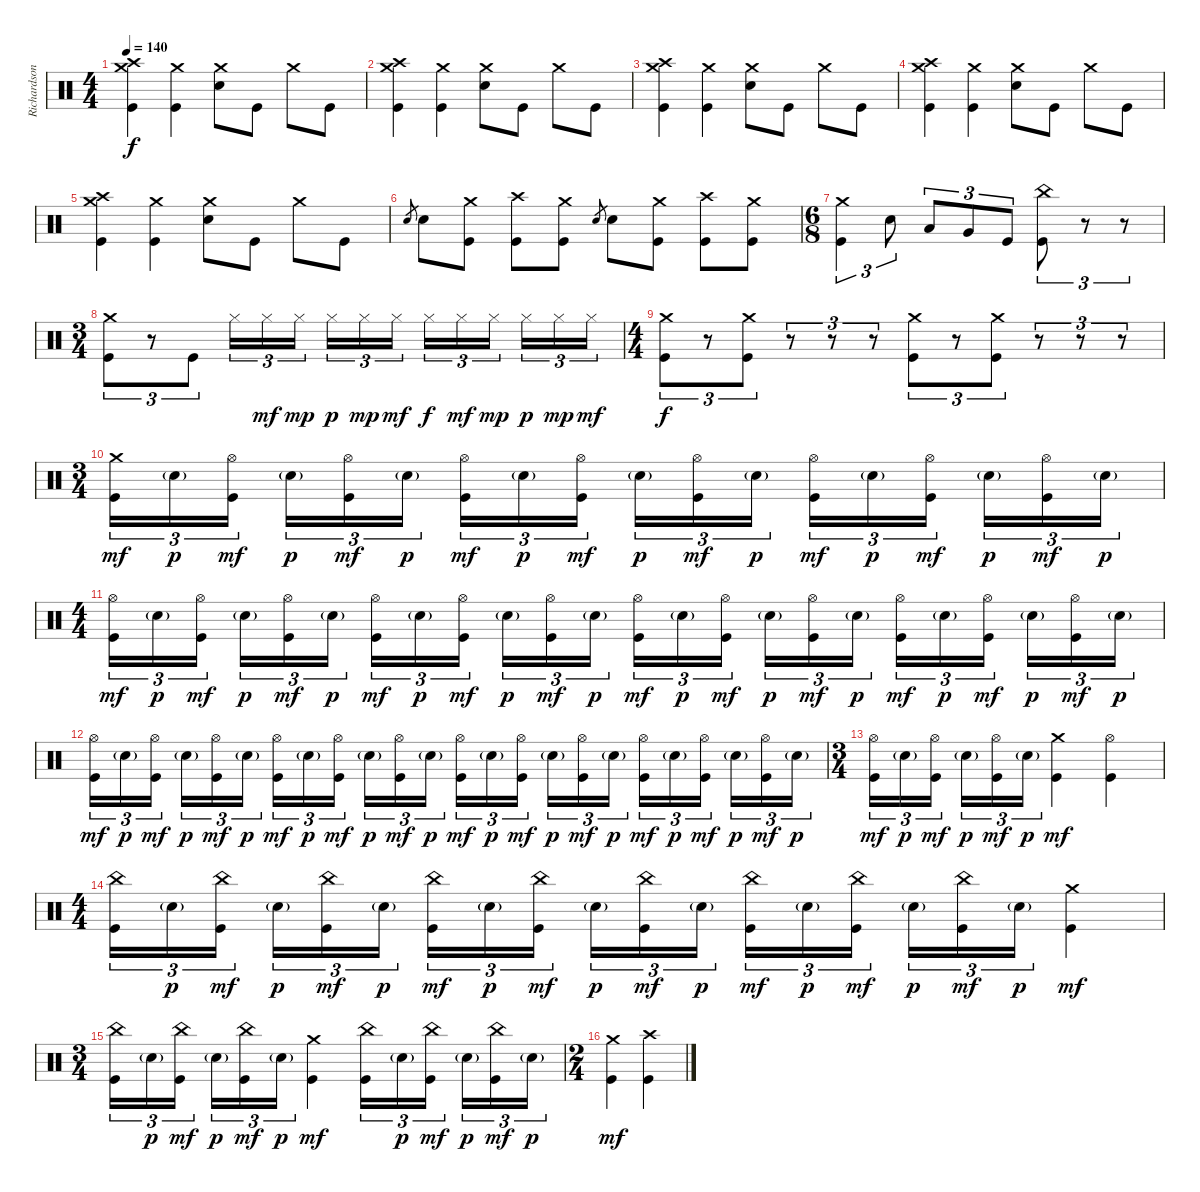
\track ("Richardson" "Richardson") {instrument percussion}
\staff {score}
\articulation defaults
\ts (4 4)
\tempo 140
\clef neutral
\ks c
("Crash medium (hit)" "Crash high (hit)" "Kick (hit)").4{dy f} ("Crash medium (hit)" "Kick (hit)").4 ("Crash medium (hit)" "Electric Snare (hit)").8 "Kick (hit)".8 "Crash medium (hit)".8 "Kick (hit)".8 |
("Crash medium (hit)" "Crash high (hit)" "Kick (hit)").4 ("Crash medium (hit)" "Kick (hit)").4 ("Crash medium (hit)" "Electric Snare (hit)").8 "Kick (hit)".8 "Crash medium (hit)".8 "Kick (hit)".8 |
("Crash medium (hit)" "Crash high (hit)" "Kick (hit)").4 ("Crash medium (hit)" "Kick (hit)").4 ("Crash medium (hit)" "Electric Snare (hit)").8 "Kick (hit)".8 "Crash medium (hit)".8 "Kick (hit)".8 |
("Crash medium (hit)" "Crash high (hit)" "Kick (hit)").4 ("Crash medium (hit)" "Kick (hit)").4 ("Crash medium (hit)" "Electric Snare (hit)").8 "Kick (hit)".8 "Crash medium (hit)".8 "Kick (hit)".8 |
("Crash medium (hit)" "Crash high (hit)" "Kick (hit)").4 ("Crash medium (hit)" "Kick (hit)").4 ("Crash medium (hit)" "Electric Snare (hit)").8 "Kick (hit)".8 "Crash medium (hit)".8 "Kick (hit)".8 |
"Electric Snare (hit)".8{gr} "Electric Snare (hit)".8 ("Crash medium (hit)" "Kick (hit)").8 ("Crash high (hit)" "Kick (hit)").8 ("Crash medium (hit)" "Kick (hit)").8 "Electric Snare (hit)".8{gr} "Electric Snare (hit)".8 ("Crash medium (hit)" "Kick (hit)").8 ("Crash high (hit)" "Kick (hit)").8 ("Crash medium (hit)" "Kick (hit)").8 |
\ts (6 8)
("Crash medium (hit)" "Kick (hit)").4{tu (3 2)} "Electric Snare (hit)".8{tu (3 2)} "Low Tom (hit)".8{tu (3 2)} "Very Low Tom (hit)".8{tu (3 2)} "Kick (hit)".8{tu (3 2)} ("China (hit)" "Kick (hit)").8{tu (3 2)} r.8{tu (3 2)} r.8{tu (3 2)} |
\ts (3 4)
("Crash medium (hit)" "Kick (hit)").8{tu (3 2)} r.8{tu (3 2)} "Kick (hit)".8{tu (3 2)} "Hi-Hat (closed)".16{tu (3 2)} "Hi-Hat (closed)".16{tu (3 2) dy mf} "Hi-Hat (closed)".16{tu (3 2) dy mp beam splitsecondary} "Hi-Hat (closed)".16{tu (3 2) dy p} "Hi-Hat (closed)".16{tu (3 2) dy mp} "Hi-Hat (closed)".16{tu (3 2) dy mf} "Hi-Hat (closed)".16{tu (3 2) dy f} "Hi-Hat (closed)".16{tu (3 2) dy mf} "Hi-Hat (closed)".16{tu (3 2) dy mp beam splitsecondary} "Hi-Hat (closed)".16{tu (3 2) dy p} "Hi-Hat (closed)".16{tu (3 2) dy mp} "Hi-Hat (closed)".16{tu (3 2) dy mf} |
\ts (4 4)
("Crash medium (hit)" "Kick (hit)").8{tu (3 2) dy f} r.8{tu (3 2)} ("Crash medium (hit)" "Kick (hit)").8{tu (3 2)} r.8{tu (3 2)} r.8{tu (3 2)} r.8{tu (3 2)} ("Crash medium (hit)" "Kick (hit)").8{tu (3 2)} r.8{tu (3 2)} ("Crash medium (hit)" "Kick (hit)").8{tu (3 2)} r.8{tu (3 2)} r.8{tu (3 2)} r.8{tu (3 2)} |
\ts (3 4)
("Crash medium (hit)" "Kick (hit)").16{tu (3 2) dy mf} "Electric Snare (hit)"{g}.16{tu (3 2) dy p} ("Hi-Hat (open)" "Kick (hit)").16{tu (3 2) dy mf beam splitsecondary} "Electric Snare (hit)"{g}.16{tu (3 2) dy p} ("Hi-Hat (open)" "Kick (hit)").16{tu (3 2) dy mf} "Electric Snare (hit)"{g}.16{tu (3 2) dy p} ("Hi-Hat (open)" "Kick (hit)").16{tu (3 2) dy mf} "Electric Snare (hit)"{g}.16{tu (3 2) dy p} ("Hi-Hat (open)" "Kick (hit)").16{tu (3 2) dy mf beam splitsecondary} "Electric Snare (hit)"{g}.16{tu (3 2) dy p} ("Hi-Hat (open)" "Kick (hit)").16{tu (3 2) dy mf} "Electric Snare (hit)"{g}.16{tu (3 2) dy p} ("Hi-Hat (open)" "Kick (hit)").16{tu (3 2) dy mf} "Electric Snare (hit)"{g}.16{tu (3 2) dy p} ("Hi-Hat (open)" "Kick (hit)").16{tu (3 2) dy mf beam splitsecondary} "Electric Snare (hit)"{g}.16{tu (3 2) dy p} ("Hi-Hat (open)" "Kick (hit)").16{tu (3 2) dy mf} "Electric Snare (hit)"{g}.16{tu (3 2) dy p} |
\ts (4 4)
("Hi-Hat (open)" "Kick (hit)").16{tu (3 2) dy mf} "Electric Snare (hit)"{g}.16{tu (3 2) dy p} ("Hi-Hat (open)" "Kick (hit)").16{tu (3 2) dy mf beam splitsecondary} "Electric Snare (hit)"{g}.16{tu (3 2) dy p} ("Hi-Hat (open)" "Kick (hit)").16{tu (3 2) dy mf} "Electric Snare (hit)"{g}.16{tu (3 2) dy p} ("Hi-Hat (open)" "Kick (hit)").16{tu (3 2) dy mf} "Electric Snare (hit)"{g}.16{tu (3 2) dy p} ("Hi-Hat (open)" "Kick (hit)").16{tu (3 2) dy mf beam splitsecondary} "Electric Snare (hit)"{g}.16{tu (3 2) dy p} ("Hi-Hat (open)" "Kick (hit)").16{tu (3 2) dy mf} "Electric Snare (hit)"{g}.16{tu (3 2) dy p} ("Hi-Hat (open)" "Kick (hit)").16{tu (3 2) dy mf} "Electric Snare (hit)"{g}.16{tu (3 2) dy p} ("Hi-Hat (open)" "Kick (hit)").16{tu (3 2) dy mf beam splitsecondary} "Electric Snare (hit)"{g}.16{tu (3 2) dy p} ("Hi-Hat (open)" "Kick (hit)").16{tu (3 2) dy mf} "Electric Snare (hit)"{g}.16{tu (3 2) dy p} ("Hi-Hat (open)" "Kick (hit)").16{tu (3 2) dy mf} "Electric Snare (hit)"{g}.16{tu (3 2) dy p} ("Hi-Hat (open)" "Kick (hit)").16{tu (3 2) dy mf beam splitsecondary} "Electric Snare (hit)"{g}.16{tu (3 2) dy p} ("Hi-Hat (open)" "Kick (hit)").16{tu (3 2) dy mf} "Electric Snare (hit)"{g}.16{tu (3 2) dy p} |
("Hi-Hat (open)" "Kick (hit)").16{tu (3 2) dy mf} "Electric Snare (hit)"{g}.16{tu (3 2) dy p} ("Hi-Hat (open)" "Kick (hit)").16{tu (3 2) dy mf beam splitsecondary} "Electric Snare (hit)"{g}.16{tu (3 2) dy p} ("Hi-Hat (open)" "Kick (hit)").16{tu (3 2) dy mf} "Electric Snare (hit)"{g}.16{tu (3 2) dy p} ("Hi-Hat (open)" "Kick (hit)").16{tu (3 2) dy mf} "Electric Snare (hit)"{g}.16{tu (3 2) dy p} ("Hi-Hat (open)" "Kick (hit)").16{tu (3 2) dy mf beam splitsecondary} "Electric Snare (hit)"{g}.16{tu (3 2) dy p} ("Hi-Hat (open)" "Kick (hit)").16{tu (3 2) dy mf} "Electric Snare (hit)"{g}.16{tu (3 2) dy p} ("Hi-Hat (open)" "Kick (hit)").16{tu (3 2) dy mf} "Electric Snare (hit)"{g}.16{tu (3 2) dy p} ("Hi-Hat (open)" "Kick (hit)").16{tu (3 2) dy mf beam splitsecondary} "Electric Snare (hit)"{g}.16{tu (3 2) dy p} ("Hi-Hat (open)" "Kick (hit)").16{tu (3 2) dy mf} "Electric Snare (hit)"{g}.16{tu (3 2) dy p} ("Hi-Hat (open)" "Kick (hit)").16{tu (3 2) dy mf} "Electric Snare (hit)"{g}.16{tu (3 2) dy p} ("Hi-Hat (open)" "Kick (hit)").16{tu (3 2) dy mf beam splitsecondary} "Electric Snare (hit)"{g}.16{tu (3 2) dy p} ("Hi-Hat (open)" "Kick (hit)").16{tu (3 2) dy mf} "Electric Snare (hit)"{g}.16{tu (3 2) dy p} |
\ts (3 4)
("Hi-Hat (open)" "Kick (hit)").16{tu (3 2) dy mf} "Electric Snare (hit)"{g}.16{tu (3 2) dy p} ("Hi-Hat (open)" "Kick (hit)").16{tu (3 2) dy mf beam splitsecondary} "Electric Snare (hit)"{g}.16{tu (3 2) dy p} ("Hi-Hat (open)" "Kick (hit)").16{tu (3 2) dy mf} "Electric Snare (hit)"{g}.16{tu (3 2) dy p} ("Crash medium (hit)" "Kick (hit)").4{dy mf} ("Hi-Hat (open)" "Kick (hit)").4 |
\ts (4 4)
("China (hit)" "Kick (hit)").16{tu (3 2)} "Electric Snare (hit)"{g}.16{tu (3 2) dy p} ("China (hit)" "Kick (hit)").16{tu (3 2) dy mf beam splitsecondary} "Electric Snare (hit)"{g}.16{tu (3 2) dy p} ("China (hit)" "Kick (hit)").16{tu (3 2) dy mf} "Electric Snare (hit)"{g}.16{tu (3 2) dy p} ("China (hit)" "Kick (hit)").16{tu (3 2) dy mf} "Electric Snare (hit)"{g}.16{tu (3 2) dy p} ("China (hit)" "Kick (hit)").16{tu (3 2) dy mf beam splitsecondary} "Electric Snare (hit)"{g}.16{tu (3 2) dy p} ("China (hit)" "Kick (hit)").16{tu (3 2) dy mf} "Electric Snare (hit)"{g}.16{tu (3 2) dy p} ("China (hit)" "Kick (hit)").16{tu (3 2) dy mf} "Electric Snare (hit)"{g}.16{tu (3 2) dy p} ("China (hit)" "Kick (hit)").16{tu (3 2) dy mf beam splitsecondary} "Electric Snare (hit)"{g}.16{tu (3 2) dy p} ("China (hit)" "Kick (hit)").16{tu (3 2) dy mf} "Electric Snare (hit)"{g}.16{tu (3 2) dy p} ("Crash medium (hit)" "Kick (hit)").4{dy mf} |
\ts (3 4)
("China (hit)" "Kick (hit)").16{tu (3 2)} "Electric Snare (hit)"{g}.16{tu (3 2) dy p} ("China (hit)" "Kick (hit)").16{tu (3 2) dy mf beam splitsecondary} "Electric Snare (hit)"{g}.16{tu (3 2) dy p} ("China (hit)" "Kick (hit)").16{tu (3 2) dy mf} "Electric Snare (hit)"{g}.16{tu (3 2) dy p} ("Crash medium (hit)" "Kick (hit)").4{dy mf} ("China (hit)" "Kick (hit)").16{tu (3 2)} "Electric Snare (hit)"{g}.16{tu (3 2) dy p} ("China (hit)" "Kick (hit)").16{tu (3 2) dy mf beam splitsecondary} "Electric Snare (hit)"{g}.16{tu (3 2) dy p} ("China (hit)" "Kick (hit)").16{tu (3 2) dy mf} "Electric Snare (hit)"{g}.16{tu (3 2) dy p} |
\ts (2 4)
("Crash medium (hit)" "Kick (hit)").4{dy mf} ("Crash high (hit)" "Kick (hit)").4
